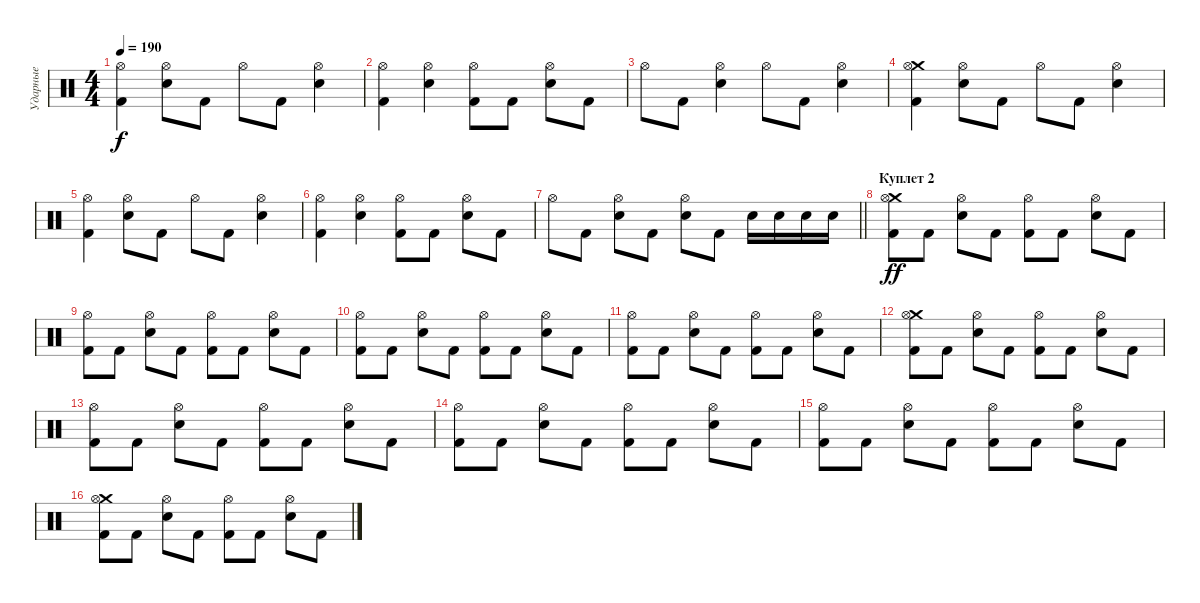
\track ("Ударные" "Ударные") {instrument percussion}
\staff {score}
\articulation defaults
\ts (4 4)
\tempo 190
\clef neutral
\ks c
("Kick (hit) 2" "Hi-Hat (open)").4{dy f} ("Electric Snare (hit)" "Hi-Hat (open)").8 "Kick (hit) 2".8 "Hi-Hat (open)".8 "Kick (hit) 2".8 ("Electric Snare (hit)" "Hi-Hat (open)").4 |
("Kick (hit) 2" "Hi-Hat (open)").4 ("Electric Snare (hit)" "Hi-Hat (open)").4 ("Kick (hit) 2" "Hi-Hat (open)").8 "Kick (hit) 2".8 ("Electric Snare (hit)" "Hi-Hat (open)").8 "Kick (hit) 2".8 |
"Hi-Hat (open)".8 "Kick (hit) 2".8 ("Electric Snare (hit)" "Hi-Hat (open)").4 "Hi-Hat (open)".8 "Kick (hit) 2".8 ("Electric Snare (hit)" "Hi-Hat (open)").4 |
("Crash medium (hit)" "Kick (hit) 2" "Hi-Hat (open)").4 ("Electric Snare (hit)" "Hi-Hat (open)").8 "Kick (hit) 2".8 "Hi-Hat (open)".8 "Kick (hit) 2".8 ("Electric Snare (hit)" "Hi-Hat (open)").4 |
("Kick (hit) 2" "Hi-Hat (open)").4 ("Electric Snare (hit)" "Hi-Hat (open)").8 "Kick (hit) 2".8 "Hi-Hat (open)".8 "Kick (hit) 2".8 ("Electric Snare (hit)" "Hi-Hat (open)").4 |
("Kick (hit) 2" "Hi-Hat (open)").4 ("Electric Snare (hit)" "Hi-Hat (open)").4 ("Kick (hit) 2" "Hi-Hat (open)").8 "Kick (hit) 2".8 ("Electric Snare (hit)" "Hi-Hat (open)").8 "Kick (hit) 2".8 |
\barLineRight lightlight "Hi-Hat (open)".8 "Kick (hit) 2".8
("Electric Snare (hit)" "Hi-Hat (open)").8 "Kick (hit) 2".8 ("Electric Snare (hit)" "Hi-Hat (open)").8 "Kick (hit) 2".8 "Electric Snare (hit)".16 "Electric Snare (hit)".16 "Electric Snare (hit)".16 "Electric Snare (hit)".16 |
\section ("" "Куплет 2")
("Crash medium (hit)" "Kick (hit) 2" "Hi-Hat (open)").8{dy ff} "Kick (hit) 2".8 ("Electric Snare (hit)" "Hi-Hat (open)").8 "Kick (hit) 2".8 ("Kick (hit) 2" "Hi-Hat (open)").8 "Kick (hit) 2".8 ("Electric Snare (hit)" "Hi-Hat (open)").8 "Kick (hit) 2".8 |
("Kick (hit) 2" "Hi-Hat (open)").8 "Kick (hit) 2".8 ("Electric Snare (hit)" "Hi-Hat (open)").8 "Kick (hit) 2".8 ("Kick (hit) 2" "Hi-Hat (open)").8 "Kick (hit) 2".8 ("Electric Snare (hit)" "Hi-Hat (open)").8 "Kick (hit) 2".8 |
("Kick (hit) 2" "Hi-Hat (open)").8 "Kick (hit) 2".8 ("Electric Snare (hit)" "Hi-Hat (open)").8 "Kick (hit) 2".8 ("Kick (hit) 2" "Hi-Hat (open)").8 "Kick (hit) 2".8 ("Electric Snare (hit)" "Hi-Hat (open)").8 "Kick (hit) 2".8 |
("Kick (hit) 2" "Hi-Hat (open)").8 "Kick (hit) 2".8 ("Electric Snare (hit)" "Hi-Hat (open)").8 "Kick (hit) 2".8 ("Kick (hit) 2" "Hi-Hat (open)").8 "Kick (hit) 2".8 ("Electric Snare (hit)" "Hi-Hat (open)").8 "Kick (hit) 2".8 |
("Crash medium (hit)" "Kick (hit) 2" "Hi-Hat (open)").8 "Kick (hit) 2".8 ("Electric Snare (hit)" "Hi-Hat (open)").8 "Kick (hit) 2".8 ("Kick (hit) 2" "Hi-Hat (open)").8 "Kick (hit) 2".8 ("Electric Snare (hit)" "Hi-Hat (open)").8 "Kick (hit) 2".8 |
("Kick (hit) 2" "Hi-Hat (open)").8 "Kick (hit) 2".8 ("Electric Snare (hit)" "Hi-Hat (open)").8 "Kick (hit) 2".8 ("Kick (hit) 2" "Hi-Hat (open)").8 "Kick (hit) 2".8 ("Electric Snare (hit)" "Hi-Hat (open)").8 "Kick (hit) 2".8 |
("Kick (hit) 2" "Hi-Hat (open)").8 "Kick (hit) 2".8 ("Electric Snare (hit)" "Hi-Hat (open)").8 "Kick (hit) 2".8 ("Kick (hit) 2" "Hi-Hat (open)").8 "Kick (hit) 2".8 ("Electric Snare (hit)" "Hi-Hat (open)").8 "Kick (hit) 2".8 |
("Kick (hit) 2" "Hi-Hat (open)").8 "Kick (hit) 2".8 ("Electric Snare (hit)" "Hi-Hat (open)").8 "Kick (hit) 2".8 ("Kick (hit) 2" "Hi-Hat (open)").8 "Kick (hit) 2".8 ("Electric Snare (hit)" "Hi-Hat (open)").8 "Kick (hit) 2".8 |
("Crash medium (hit)" "Kick (hit) 2" "Hi-Hat (open)").8 "Kick (hit) 2".8 ("Electric Snare (hit)" "Hi-Hat (open)").8 "Kick (hit) 2".8 ("Kick (hit) 2" "Hi-Hat (open)").8 "Kick (hit) 2".8 ("Electric Snare (hit)" "Hi-Hat (open)").8 "Kick (hit) 2".8
